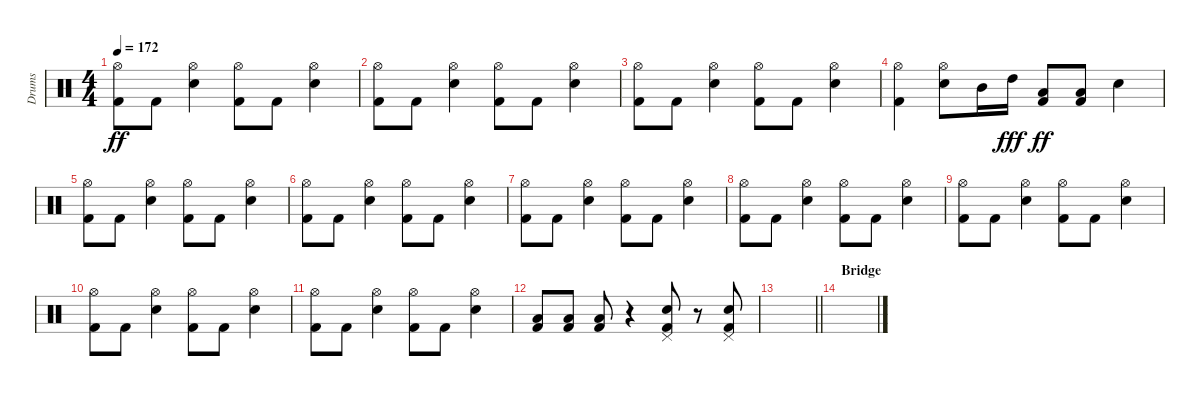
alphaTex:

\track ("Drums" "Drums") {instrument percussion}
\staff {score}
\articulation defaults
\ts (4 4)
\tempo 172
\clef neutral
\ks c
("Hi-Hat (open)" "Kick (hit) 2").8{dy ff} "Kick (hit) 2".8 ("Hi-Hat (open)" "Snare (hit) 2").4 ("Hi-Hat (open)" "Kick (hit) 2").8 "Kick (hit) 2".8 ("Hi-Hat (open)" "Snare (hit) 2").4 |
("Hi-Hat (open)" "Kick (hit) 2").8 "Kick (hit) 2".8 ("Hi-Hat (open)" "Snare (hit) 2").4 ("Hi-Hat (open)" "Kick (hit) 2").8 "Kick (hit) 2".8 ("Hi-Hat (open)" "Snare (hit) 2").4 |
("Hi-Hat (open)" "Kick (hit) 2").8 "Kick (hit) 2".8 ("Hi-Hat (open)" "Snare (hit) 2").4 ("Hi-Hat (open)" "Kick (hit) 2").8 "Kick (hit) 2".8 ("Hi-Hat (open)" "Snare (hit) 2").4 |
("Hi-Hat (open)" "Kick (hit) 2").4 ("Hi-Hat (open)" "Snare (hit) 2").8 "Mid Tom (hit)".16 "High Tom (hit)".16{dy fff} ("Low Floor Tom (hit)" "Kick (hit) 2").8{dy ff} ("Low Floor Tom (hit)" "Kick (hit) 2").8 "Snare (hit) 2".4 |
("Hi-Hat (open)" "Kick (hit) 2").8 "Kick (hit) 2".8 ("Hi-Hat (open)" "Snare (hit) 2").4 ("Hi-Hat (open)" "Kick (hit) 2").8 "Kick (hit) 2".8 ("Hi-Hat (open)" "Snare (hit) 2").4 |
("Hi-Hat (open)" "Kick (hit) 2").8 "Kick (hit) 2".8 ("Hi-Hat (open)" "Snare (hit) 2").4 ("Hi-Hat (open)" "Kick (hit) 2").8 "Kick (hit) 2".8 ("Hi-Hat (open)" "Snare (hit) 2").4 |
("Hi-Hat (open)" "Kick (hit) 2").8 "Kick (hit) 2".8 ("Hi-Hat (open)" "Snare (hit) 2").4 ("Hi-Hat (open)" "Kick (hit) 2").8 "Kick (hit) 2".8 ("Hi-Hat (open)" "Snare (hit) 2").4 |
("Hi-Hat (open)" "Kick (hit) 2").8 "Kick (hit) 2".8 ("Hi-Hat (open)" "Snare (hit) 2").4 ("Hi-Hat (open)" "Kick (hit) 2").8 "Kick (hit) 2".8 ("Hi-Hat (open)" "Snare (hit) 2").4 |
("Hi-Hat (open)" "Kick (hit) 2").8 "Kick (hit) 2".8 ("Hi-Hat (open)" "Snare (hit) 2").4 ("Hi-Hat (open)" "Kick (hit) 2").8 "Kick (hit) 2".8 ("Hi-Hat (open)" "Snare (hit) 2").4 |
("Hi-Hat (open)" "Kick (hit) 2").8 "Kick (hit) 2".8 ("Hi-Hat (open)" "Snare (hit) 2").4 ("Hi-Hat (open)" "Kick (hit) 2").8 "Kick (hit) 2".8 ("Hi-Hat (open)" "Snare (hit) 2").4 |
("Hi-Hat (open)" "Kick (hit) 2").8 "Kick (hit) 2".8 ("Hi-Hat (open)" "Snare (hit) 2").4 ("Hi-Hat (open)" "Kick (hit) 2").8 "Kick (hit) 2".8 ("Hi-Hat (open)" "Snare (hit) 2").4 |
("Low Floor Tom (hit)" "Kick (hit) 2").8 ("Low Floor Tom (hit)" "Kick (hit) 2").8 ("Low Floor Tom (hit)" "Kick (hit) 2").8 r.4 ("Pedal Hi-Hat (hit)" "Snare (hit) 2" "Kick (hit) 2").8 r.8 ("Pedal Hi-Hat (hit)" "Snare (hit) 2" "Kick (hit) 2").8 |
\barLineRight lightlight
|
\section ("" "Bridge")
